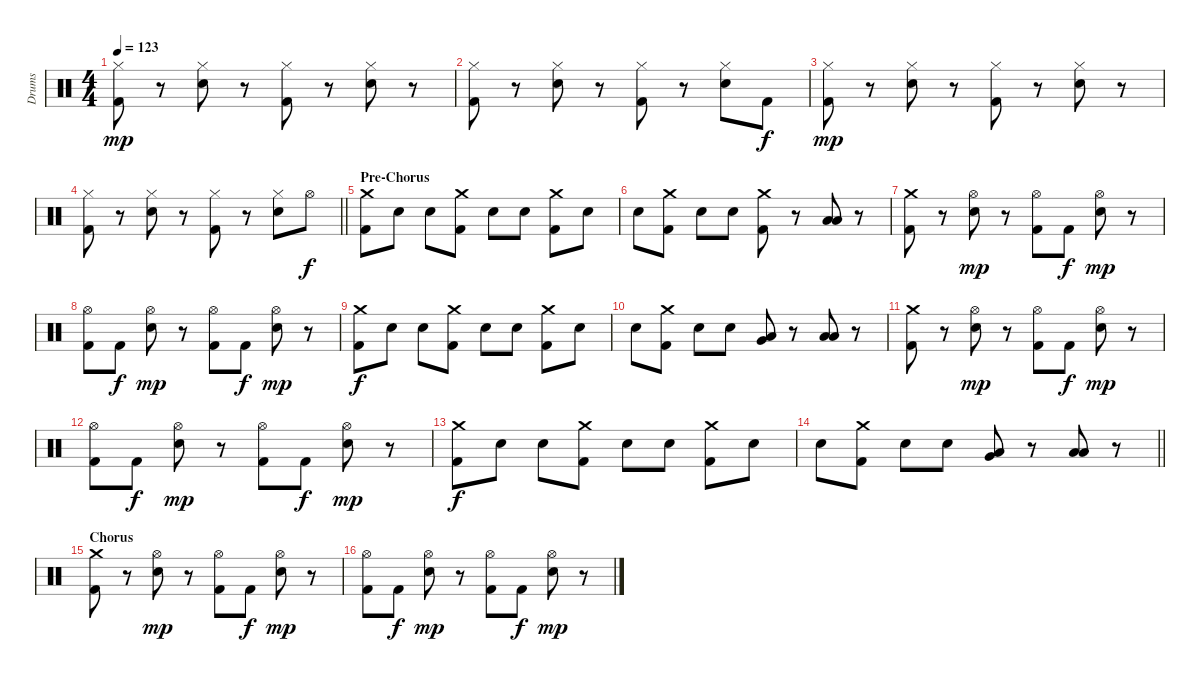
\track ("Drums" "Drums") {instrument percussion}
\staff {score}
\articulation defaults
\ts (4 4)
\tempo 123
\clef neutral
\ks c
("Hi-Hat (closed)" "Kick (hit) 2").8{dy mp} r.8 ("Hi-Hat (closed)" "Snare (hit) 2").8 r.8 ("Hi-Hat (closed)" "Kick (hit) 2").8 r.8 ("Hi-Hat (closed)" "Snare (hit) 2").8 r.8 |
("Hi-Hat (closed)" "Kick (hit) 2").8 r.8 ("Hi-Hat (closed)" "Snare (hit) 2").8 r.8 ("Hi-Hat (closed)" "Kick (hit) 2").8 r.8 ("Hi-Hat (closed)" "Snare (hit) 2").8 "Kick (hit) 2".8{dy f} |
("Hi-Hat (closed)" "Kick (hit) 2").8{dy mp} r.8 ("Hi-Hat (closed)" "Snare (hit) 2").8 r.8 ("Hi-Hat (closed)" "Kick (hit) 2").8 r.8 ("Hi-Hat (closed)" "Snare (hit) 2").8 r.8 |
\barLineRight lightlight
("Hi-Hat (closed)" "Kick (hit) 2").8 r.8 ("Hi-Hat (closed)" "Snare (hit) 2").8 r.8 ("Hi-Hat (closed)" "Kick (hit) 2").8 r.8 ("Hi-Hat (closed)" "Snare (hit) 2").8 "Hi-Hat (open)".8{dy f} |
\section ("" "Pre-Chorus")
("Crash medium (hit)" "Kick (hit) 2").8 "Snare (hit) 2".8 "Snare (hit) 2".8 ("Crash medium (hit)" "Kick (hit) 2").8 "Snare (hit) 2".8 "Snare (hit) 2".8 ("Crash medium (hit)" "Kick (hit) 2").8 "Snare (hit) 2".8 |
"Snare (hit) 2".8 ("Crash medium (hit)" "Kick (hit) 2").8 "Snare (hit) 2".8 "Snare (hit) 2".8 ("Crash medium (hit)" "Kick (hit) 2").8 r.8 ("Low Tom (hit)" "Low Floor Tom (hit)").8 r.8 |
("Crash medium (hit)" "Kick (hit) 2").8 r.8 ("Hi-Hat (open)" "Electric Snare (hit)").8{dy mp} r.8 ("Hi-Hat (open)" "Kick (hit) 2").8 "Kick (hit) 2".8{dy f} ("Hi-Hat (open)" "Electric Snare (hit)").8{dy mp} r.8 |
("Hi-Hat (open)" "Kick (hit) 2").8 "Kick (hit) 2".8{dy f} ("Hi-Hat (open)" "Electric Snare (hit)").8{dy mp} r.8 ("Hi-Hat (open)" "Kick (hit) 2").8 "Kick (hit) 2".8{dy f} ("Hi-Hat (open)" "Electric Snare (hit)").8{dy mp} r.8 |
("Crash medium (hit)" "Kick (hit) 2").8{dy f} "Snare (hit) 2".8 "Snare (hit) 2".8 ("Crash medium (hit)" "Kick (hit) 2").8 "Snare (hit) 2".8 "Snare (hit) 2".8 ("Crash medium (hit)" "Kick (hit) 2").8 "Snare (hit) 2".8 |
"Snare (hit) 2".8 ("Crash medium (hit)" "Kick (hit) 2").8 "Snare (hit) 2".8 "Snare (hit) 2".8 ("Very Low Tom (hit)" "Low Floor Tom (hit)").8 r.8 ("Low Tom (hit)" "Low Floor Tom (hit)").8 r.8 |
("Crash medium (hit)" "Kick (hit) 2").8 r.8 ("Hi-Hat (open)" "Electric Snare (hit)").8{dy mp} r.8 ("Hi-Hat (open)" "Kick (hit) 2").8 "Kick (hit) 2".8{dy f} ("Hi-Hat (open)" "Electric Snare (hit)").8{dy mp} r.8 |
("Hi-Hat (open)" "Kick (hit) 2").8 "Kick (hit) 2".8{dy f} ("Hi-Hat (open)" "Electric Snare (hit)").8{dy mp} r.8 ("Hi-Hat (open)" "Kick (hit) 2").8 "Kick (hit) 2".8{dy f} ("Hi-Hat (open)" "Electric Snare (hit)").8{dy mp} r.8 |
("Crash medium (hit)" "Kick (hit) 2").8{dy f} "Snare (hit) 2".8 "Snare (hit) 2".8 ("Crash medium (hit)" "Kick (hit) 2").8 "Snare (hit) 2".8 "Snare (hit) 2".8 ("Crash medium (hit)" "Kick (hit) 2").8 "Snare (hit) 2".8 |
\barLineRight lightlight "Snare (hit) 2".8
("Crash medium (hit)" "Kick (hit) 2").8 "Snare (hit) 2".8 "Snare (hit) 2".8 ("Very Low Tom (hit)" "Low Floor Tom (hit)").8 r.8 ("Low Tom (hit)" "Low Floor Tom (hit)").8 r.8 |
\section ("" "Chorus")
("Crash medium (hit)" "Kick (hit) 2").8 r.8 ("Hi-Hat (open)" "Electric Snare (hit)").8{dy mp} r.8 ("Hi-Hat (open)" "Kick (hit) 2").8 "Kick (hit) 2".8{dy f} ("Hi-Hat (open)" "Electric Snare (hit)").8{dy mp} r.8 |
("Hi-Hat (open)" "Kick (hit) 2").8 "Kick (hit) 2".8{dy f} ("Hi-Hat (open)" "Electric Snare (hit)").8{dy mp} r.8 ("Hi-Hat (open)" "Kick (hit) 2").8 "Kick (hit) 2".8{dy f} ("Hi-Hat (open)" "Electric Snare (hit)").8{dy mp} r.8
